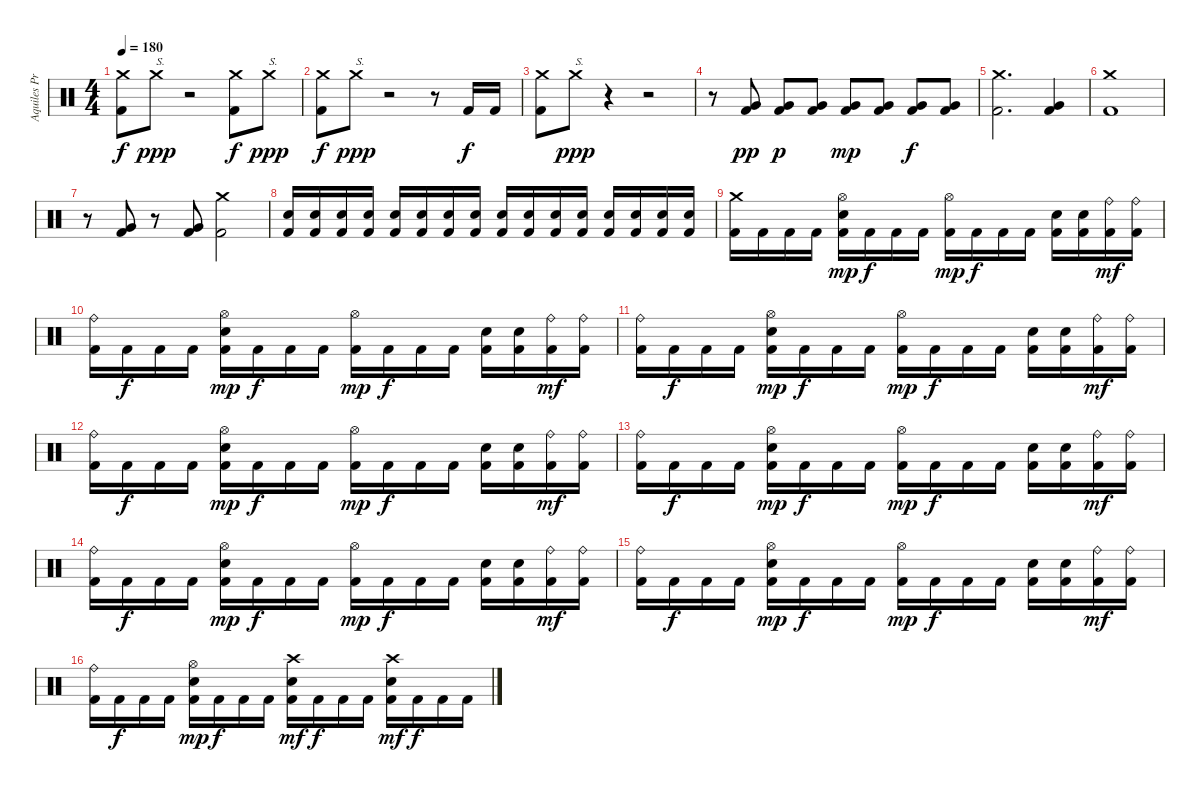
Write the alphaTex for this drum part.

\track ("Aquiles Priester" "Aquiles Pr") {instrument percussion}
\staff {score}
\articulation defaults
\ts (4 4)
\tempo 180
\clef neutral
\ks c
("Crash medium (hit)" "Kick (hit) 2").8{dy f} "Crash medium (hit)".8{txt "S." dy ppp} r.2 ("Crash medium (hit)" "Kick (hit) 2").8{dy f} "Crash medium (hit)".8{txt "S." dy ppp} |
("Crash medium (hit)" "Kick (hit) 2").8{dy f} "Crash medium (hit)".8{txt "S." dy ppp} r.2 r.8 "Kick (hit) 2".16{dy f} "Kick (hit) 2".16 |
("Crash medium (hit)" "Kick (hit) 2").8 "Crash medium (hit)".8{txt "S." dy ppp} r.4 r.2 |
r.8 ("Very Low Tom (hit)" "Kick (hit) 2").8{dy pp} ("Very Low Tom (hit)" "Kick (hit) 2").8{dy p} ("Very Low Tom (hit)" "Kick (hit) 2").8 ("Very Low Tom (hit)" "Kick (hit) 2").8{dy mp} ("Very Low Tom (hit)" "Kick (hit) 2").8 ("Very Low Tom (hit)" "Kick (hit) 2").8{dy f} ("Very Low Tom (hit)" "Kick (hit) 2").8 |
("Crash medium (hit)" "Kick (hit) 2").2{d} ("Very Low Tom (hit)" "Kick (hit) 2").4 |
("Crash medium (hit)" "Kick (hit) 2").1 |
r.8 ("Very Low Tom (hit)" "Kick (hit) 2").8 r.8 ("Very Low Tom (hit)" "Kick (hit) 2").8 ("Crash medium (hit)" "Kick (hit) 2").2 |
("Snare (hit) 2" "Kick (hit) 2").16 ("Snare (hit) 2" "Kick (hit) 2").16 ("Snare (hit) 2" "Kick (hit) 2").16 ("Snare (hit) 2" "Kick (hit) 2").16 ("Snare (hit) 2" "Kick (hit) 2").16 ("Snare (hit) 2" "Kick (hit) 2").16 ("Snare (hit) 2" "Kick (hit) 2").16 ("Snare (hit) 2" "Kick (hit) 2").16 ("Snare (hit) 2" "Kick (hit) 2").16 ("Snare (hit) 2" "Kick (hit) 2").16 ("Snare (hit) 2" "Kick (hit) 2").16 ("Snare (hit) 2" "Kick (hit) 2").16 ("Snare (hit) 2" "Kick (hit) 2").16 ("Snare (hit) 2" "Kick (hit) 2").16 ("Snare (hit) 2" "Kick (hit) 2").16 ("Snare (hit) 2" "Kick (hit) 2").16 |
("Crash medium (hit)" "Kick (hit) 2").16 "Kick (hit) 2".16 "Kick (hit) 2".16 "Kick (hit) 2".16 ("Hi-Hat (open)" "Snare (hit) 2" "Kick (hit) 2").16{dy mp} "Kick (hit) 2".16{dy f} "Kick (hit) 2".16 "Kick (hit) 2".16 ("Hi-Hat (open)" "Kick (hit) 2").16{dy mp} "Kick (hit) 2".16{dy f} "Kick (hit) 2".16 "Kick (hit) 2".16 ("Snare (hit) 2" "Kick (hit) 2").16 ("Snare (hit) 2" "Kick (hit) 2").16 ("Ride (bell)" "Kick (hit) 2").16{dy mf} ("Ride (bell)" "Kick (hit) 2").16 |
("Ride (bell)" "Kick (hit) 2").16 "Kick (hit) 2".16{dy f} "Kick (hit) 2".16 "Kick (hit) 2".16 ("Hi-Hat (open)" "Snare (hit) 2" "Kick (hit) 2").16{dy mp} "Kick (hit) 2".16{dy f} "Kick (hit) 2".16 "Kick (hit) 2".16 ("Hi-Hat (open)" "Kick (hit) 2").16{dy mp} "Kick (hit) 2".16{dy f} "Kick (hit) 2".16 "Kick (hit) 2".16 ("Snare (hit) 2" "Kick (hit) 2").16 ("Snare (hit) 2" "Kick (hit) 2").16 ("Ride (bell)" "Kick (hit) 2").16{dy mf} ("Ride (bell)" "Kick (hit) 2").16 |
("Ride (bell)" "Kick (hit) 2").16 "Kick (hit) 2".16{dy f} "Kick (hit) 2".16 "Kick (hit) 2".16 ("Hi-Hat (open)" "Snare (hit) 2" "Kick (hit) 2").16{dy mp} "Kick (hit) 2".16{dy f} "Kick (hit) 2".16 "Kick (hit) 2".16 ("Hi-Hat (open)" "Kick (hit) 2").16{dy mp} "Kick (hit) 2".16{dy f} "Kick (hit) 2".16 "Kick (hit) 2".16 ("Snare (hit) 2" "Kick (hit) 2").16 ("Snare (hit) 2" "Kick (hit) 2").16 ("Ride (bell)" "Kick (hit) 2").16{dy mf} ("Ride (bell)" "Kick (hit) 2").16 |
("Ride (bell)" "Kick (hit) 2").16 "Kick (hit) 2".16{dy f} "Kick (hit) 2".16 "Kick (hit) 2".16 ("Hi-Hat (open)" "Snare (hit) 2" "Kick (hit) 2").16{dy mp} "Kick (hit) 2".16{dy f} "Kick (hit) 2".16 "Kick (hit) 2".16 ("Hi-Hat (open)" "Kick (hit) 2").16{dy mp} "Kick (hit) 2".16{dy f} "Kick (hit) 2".16 "Kick (hit) 2".16 ("Snare (hit) 2" "Kick (hit) 2").16 ("Snare (hit) 2" "Kick (hit) 2").16 ("Ride (bell)" "Kick (hit) 2").16{dy mf} ("Ride (bell)" "Kick (hit) 2").16 |
("Ride (bell)" "Kick (hit) 2").16 "Kick (hit) 2".16{dy f} "Kick (hit) 2".16 "Kick (hit) 2".16 ("Hi-Hat (open)" "Snare (hit) 2" "Kick (hit) 2").16{dy mp} "Kick (hit) 2".16{dy f} "Kick (hit) 2".16 "Kick (hit) 2".16 ("Hi-Hat (open)" "Kick (hit) 2").16{dy mp} "Kick (hit) 2".16{dy f} "Kick (hit) 2".16 "Kick (hit) 2".16 ("Snare (hit) 2" "Kick (hit) 2").16 ("Snare (hit) 2" "Kick (hit) 2").16 ("Ride (bell)" "Kick (hit) 2").16{dy mf} ("Ride (bell)" "Kick (hit) 2").16 |
("Ride (bell)" "Kick (hit) 2").16 "Kick (hit) 2".16{dy f} "Kick (hit) 2".16 "Kick (hit) 2".16 ("Hi-Hat (open)" "Snare (hit) 2" "Kick (hit) 2").16{dy mp} "Kick (hit) 2".16{dy f} "Kick (hit) 2".16 "Kick (hit) 2".16 ("Hi-Hat (open)" "Kick (hit) 2").16{dy mp} "Kick (hit) 2".16{dy f} "Kick (hit) 2".16 "Kick (hit) 2".16 ("Snare (hit) 2" "Kick (hit) 2").16 ("Snare (hit) 2" "Kick (hit) 2").16 ("Ride (bell)" "Kick (hit) 2").16{dy mf} ("Ride (bell)" "Kick (hit) 2").16 |
("Ride (bell)" "Kick (hit) 2").16 "Kick (hit) 2".16{dy f} "Kick (hit) 2".16 "Kick (hit) 2".16 ("Hi-Hat (open)" "Snare (hit) 2" "Kick (hit) 2").16{dy mp} "Kick (hit) 2".16{dy f} "Kick (hit) 2".16 "Kick (hit) 2".16 ("Hi-Hat (open)" "Kick (hit) 2").16{dy mp} "Kick (hit) 2".16{dy f} "Kick (hit) 2".16 "Kick (hit) 2".16 ("Snare (hit) 2" "Kick (hit) 2").16 ("Snare (hit) 2" "Kick (hit) 2").16 ("Ride (bell)" "Kick (hit) 2").16{dy mf} ("Ride (bell)" "Kick (hit) 2").16 |
("Ride (bell)" "Kick (hit) 2").16 "Kick (hit) 2".16{dy f} "Kick (hit) 2".16 "Kick (hit) 2".16 ("Hi-Hat (open)" "Snare (hit) 2" "Kick (hit) 2").16{dy mp} "Kick (hit) 2".16{dy f} "Kick (hit) 2".16 "Kick (hit) 2".16 ("Crash high (hit)" "Snare (hit) 2" "Kick (hit) 2").16{dy mf} "Kick (hit) 2".16{dy f} "Kick (hit) 2".16 "Kick (hit) 2".16 ("Crash high (hit)" "Snare (hit) 2" "Kick (hit) 2").16{dy mf} "Kick (hit) 2".16{dy f} "Kick (hit) 2".16 "Kick (hit) 2".16
